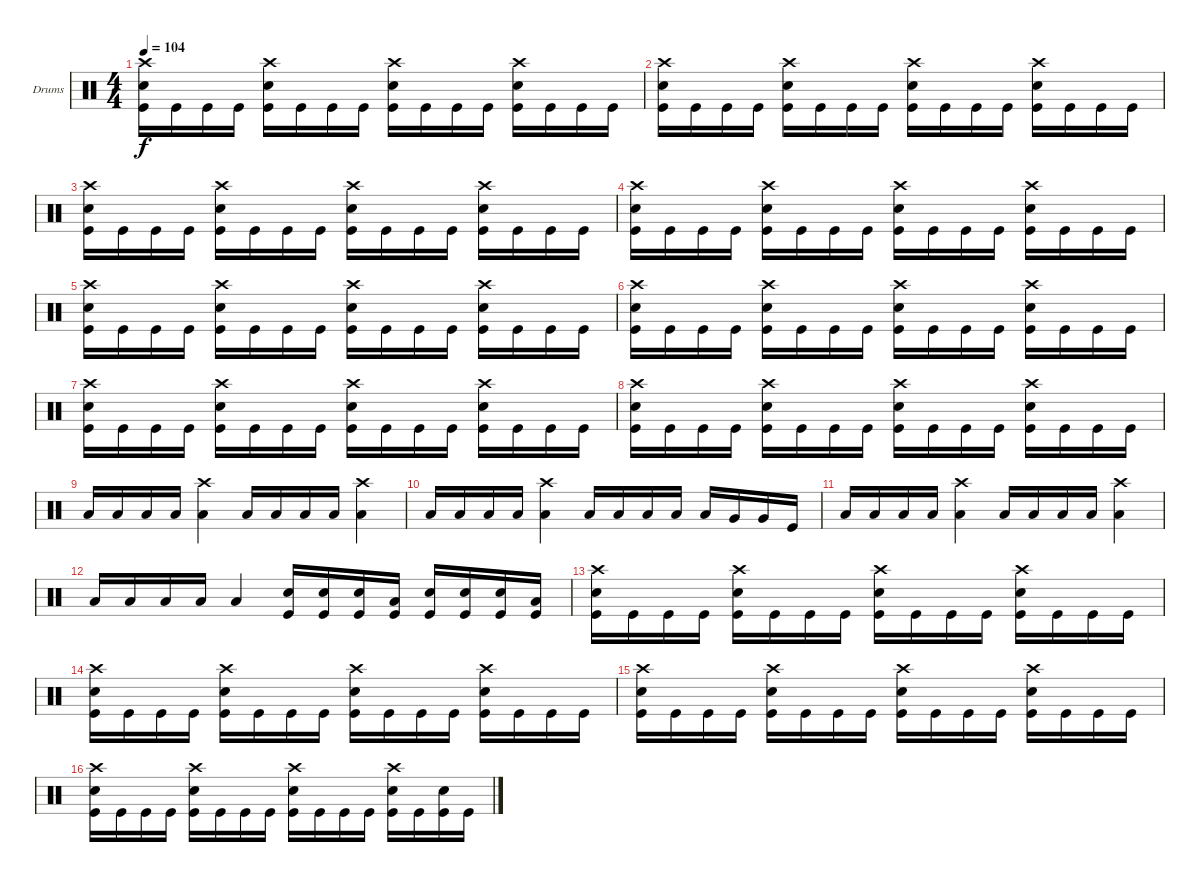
\bracketExtendMode groupsimilarinstruments
\firstSystemTrackNameOrientation horizontal
\otherSystemsTrackNameOrientation horizontal
\track ("Drumkit" "Drums") {instrument percussion}
\staff {score}
\articulation defaults
\ts (4 4)
\tempo 104
\clef neutral
\ks c
("Crash high (hit)" "Snare (hit) 2" "Kick (hit)").16{dy f} "Kick (hit)".16 "Kick (hit)".16 "Kick (hit)".16 ("Crash high (hit)" "Snare (hit) 2" "Kick (hit)").16 "Kick (hit)".16 "Kick (hit)".16 "Kick (hit)".16 ("Crash high (hit)" "Snare (hit) 2" "Kick (hit)").16 "Kick (hit)".16 "Kick (hit)".16 "Kick (hit)".16 ("Crash high (hit)" "Snare (hit) 2" "Kick (hit)").16 "Kick (hit)".16 "Kick (hit)".16 "Kick (hit)".16 |
("Crash high (hit)" "Snare (hit) 2" "Kick (hit)").16 "Kick (hit)".16 "Kick (hit)".16 "Kick (hit)".16 ("Crash high (hit)" "Snare (hit) 2" "Kick (hit)").16 "Kick (hit)".16 "Kick (hit)".16 "Kick (hit)".16 ("Crash high (hit)" "Snare (hit) 2" "Kick (hit)").16 "Kick (hit)".16 "Kick (hit)".16 "Kick (hit)".16 ("Crash high (hit)" "Snare (hit) 2" "Kick (hit)").16 "Kick (hit)".16 "Kick (hit)".16 "Kick (hit)".16 |
("Crash high (hit)" "Snare (hit) 2" "Kick (hit)").16 "Kick (hit)".16 "Kick (hit)".16 "Kick (hit)".16 ("Crash high (hit)" "Snare (hit) 2" "Kick (hit)").16 "Kick (hit)".16 "Kick (hit)".16 "Kick (hit)".16 ("Crash high (hit)" "Snare (hit) 2" "Kick (hit)").16 "Kick (hit)".16 "Kick (hit)".16 "Kick (hit)".16 ("Crash high (hit)" "Snare (hit) 2" "Kick (hit)").16 "Kick (hit)".16 "Kick (hit)".16 "Kick (hit)".16 |
("Crash high (hit)" "Snare (hit) 2" "Kick (hit)").16 "Kick (hit)".16 "Kick (hit)".16 "Kick (hit)".16 ("Crash high (hit)" "Snare (hit) 2" "Kick (hit)").16 "Kick (hit)".16 "Kick (hit)".16 "Kick (hit)".16 ("Crash high (hit)" "Snare (hit) 2" "Kick (hit)").16 "Kick (hit)".16 "Kick (hit)".16 "Kick (hit)".16 ("Crash high (hit)" "Snare (hit) 2" "Kick (hit)").16 "Kick (hit)".16 "Kick (hit)".16 "Kick (hit)".16 |
("Crash high (hit)" "Snare (hit) 2" "Kick (hit)").16 "Kick (hit)".16 "Kick (hit)".16 "Kick (hit)".16 ("Crash high (hit)" "Snare (hit) 2" "Kick (hit)").16 "Kick (hit)".16 "Kick (hit)".16 "Kick (hit)".16 ("Crash high (hit)" "Snare (hit) 2" "Kick (hit)").16 "Kick (hit)".16 "Kick (hit)".16 "Kick (hit)".16 ("Crash high (hit)" "Snare (hit) 2" "Kick (hit)").16 "Kick (hit)".16 "Kick (hit)".16 "Kick (hit)".16 |
("Crash high (hit)" "Snare (hit) 2" "Kick (hit)").16 "Kick (hit)".16 "Kick (hit)".16 "Kick (hit)".16 ("Crash high (hit)" "Snare (hit) 2" "Kick (hit)").16 "Kick (hit)".16 "Kick (hit)".16 "Kick (hit)".16 ("Crash high (hit)" "Snare (hit) 2" "Kick (hit)").16 "Kick (hit)".16 "Kick (hit)".16 "Kick (hit)".16 ("Crash high (hit)" "Snare (hit) 2" "Kick (hit)").16 "Kick (hit)".16 "Kick (hit)".16 "Kick (hit)".16 |
("Crash high (hit)" "Snare (hit) 2" "Kick (hit)").16 "Kick (hit)".16 "Kick (hit)".16 "Kick (hit)".16 ("Crash high (hit)" "Snare (hit) 2" "Kick (hit)").16 "Kick (hit)".16 "Kick (hit)".16 "Kick (hit)".16 ("Crash high (hit)" "Snare (hit) 2" "Kick (hit)").16 "Kick (hit)".16 "Kick (hit)".16 "Kick (hit)".16 ("Crash high (hit)" "Snare (hit) 2" "Kick (hit)").16 "Kick (hit)".16 "Kick (hit)".16 "Kick (hit)".16 |
("Crash high (hit)" "Snare (hit) 2" "Kick (hit)").16 "Kick (hit)".16 "Kick (hit)".16 "Kick (hit)".16 ("Crash high (hit)" "Snare (hit) 2" "Kick (hit)").16 "Kick (hit)".16 "Kick (hit)".16 "Kick (hit)".16 ("Crash high (hit)" "Snare (hit) 2" "Kick (hit)").16 "Kick (hit)".16 "Kick (hit)".16 "Kick (hit)".16 ("Crash high (hit)" "Snare (hit) 2" "Kick (hit)").16 "Kick (hit)".16 "Kick (hit)".16 "Kick (hit)".16 |
"Low Tom (hit)".16 "Low Tom (hit)".16 "Low Tom (hit)".16 "Low Tom (hit)".16 ("Crash high (hit)" "Low Tom (hit)").4 "Low Tom (hit)".16 "Low Tom (hit)".16 "Low Tom (hit)".16 "Low Tom (hit)".16 ("Crash high (hit)" "Low Tom (hit)").4 |
"Low Tom (hit)".16 "Low Tom (hit)".16 "Low Tom (hit)".16 "Low Tom (hit)".16 ("Crash high (hit)" "Low Tom (hit)").4 "Low Tom (hit)".16 "Low Tom (hit)".16 "Low Tom (hit)".16 "Low Tom (hit)".16 "Low Tom (hit)".16 "Very Low Tom (hit)".16 "Very Low Tom (hit)".16 "Kick (hit)".16 |
"Low Tom (hit)".16 "Low Tom (hit)".16 "Low Tom (hit)".16 "Low Tom (hit)".16 ("Crash high (hit)" "Low Tom (hit)").4 "Low Tom (hit)".16 "Low Tom (hit)".16 "Low Tom (hit)".16 "Low Tom (hit)".16 ("Crash high (hit)" "Low Tom (hit)").4 |
"Low Tom (hit)".16 "Low Tom (hit)".16 "Low Tom (hit)".16 "Low Tom (hit)".16 "Low Tom (hit)".4 ("Snare (hit) 2" "Kick (hit)").16 ("Snare (hit) 2" "Kick (hit)").16 ("Snare (hit) 2" "Kick (hit)").16 ("Low Tom (hit)" "Kick (hit)").16 ("Snare (hit) 2" "Kick (hit)").16 ("Snare (hit) 2" "Kick (hit)").16 ("Snare (hit) 2" "Kick (hit)").16 ("Low Tom (hit)" "Kick (hit)").16 |
("Crash high (hit)" "Snare (hit) 2" "Kick (hit)").16 "Kick (hit)".16 "Kick (hit)".16 "Kick (hit)".16 ("Crash high (hit)" "Snare (hit) 2" "Kick (hit)").16 "Kick (hit)".16 "Kick (hit)".16 "Kick (hit)".16 ("Crash high (hit)" "Snare (hit) 2" "Kick (hit)").16 "Kick (hit)".16 "Kick (hit)".16 "Kick (hit)".16 ("Crash high (hit)" "Snare (hit) 2" "Kick (hit)").16 "Kick (hit)".16 "Kick (hit)".16 "Kick (hit)".16 |
("Crash high (hit)" "Snare (hit) 2" "Kick (hit)").16 "Kick (hit)".16 "Kick (hit)".16 "Kick (hit)".16 ("Crash high (hit)" "Snare (hit) 2" "Kick (hit)").16 "Kick (hit)".16 "Kick (hit)".16 "Kick (hit)".16 ("Crash high (hit)" "Snare (hit) 2" "Kick (hit)").16 "Kick (hit)".16 "Kick (hit)".16 "Kick (hit)".16 ("Crash high (hit)" "Snare (hit) 2" "Kick (hit)").16 "Kick (hit)".16 "Kick (hit)".16 "Kick (hit)".16 |
("Crash high (hit)" "Snare (hit) 2" "Kick (hit)").16 "Kick (hit)".16 "Kick (hit)".16 "Kick (hit)".16 ("Crash high (hit)" "Snare (hit) 2" "Kick (hit)").16 "Kick (hit)".16 "Kick (hit)".16 "Kick (hit)".16 ("Crash high (hit)" "Snare (hit) 2" "Kick (hit)").16 "Kick (hit)".16 "Kick (hit)".16 "Kick (hit)".16 ("Crash high (hit)" "Snare (hit) 2" "Kick (hit)").16 "Kick (hit)".16 "Kick (hit)".16 "Kick (hit)".16 |
("Crash high (hit)" "Snare (hit) 2" "Kick (hit)").16 "Kick (hit)".16 "Kick (hit)".16 "Kick (hit)".16 ("Crash high (hit)" "Snare (hit) 2" "Kick (hit)").16 "Kick (hit)".16 "Kick (hit)".16 "Kick (hit)".16 ("Crash high (hit)" "Snare (hit) 2" "Kick (hit)").16 "Kick (hit)".16 "Kick (hit)".16 "Kick (hit)".16 ("Crash high (hit)" "Snare (hit) 2" "Kick (hit)").16 "Kick (hit)".16 ("Snare (hit) 2" "Kick (hit)").16 "Kick (hit)".16
